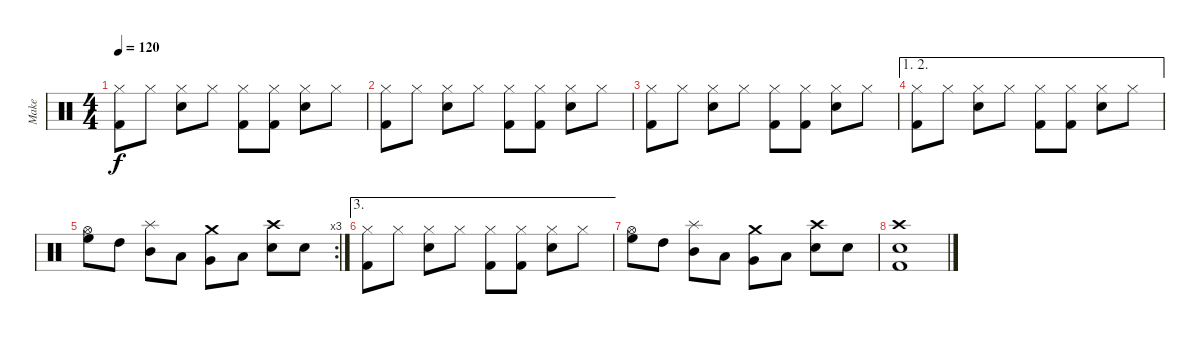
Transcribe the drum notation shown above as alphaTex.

\track ("Make" "Make") {instrument percussion}
\staff {score}
\articulation defaults
\ts (4 4)
\tempo 120
\clef neutral
\ks c
("Hi-Hat (closed)" "Kick (hit) 2").8{dy f} "Hi-Hat (closed)".8 ("Hi-Hat (closed)" "Electric Snare (hit)").8 "Hi-Hat (closed)".8 ("Hi-Hat (closed)" "Kick (hit) 2").8 ("Hi-Hat (closed)" "Kick (hit) 2").8 ("Hi-Hat (closed)" "Electric Snare (hit)").8 "Hi-Hat (closed)".8 |
("Hi-Hat (closed)" "Kick (hit) 2").8 "Hi-Hat (closed)".8 ("Hi-Hat (closed)" "Electric Snare (hit)").8 "Hi-Hat (closed)".8 ("Hi-Hat (closed)" "Kick (hit) 2").8 ("Hi-Hat (closed)" "Kick (hit) 2").8 ("Hi-Hat (closed)" "Electric Snare (hit)").8 "Hi-Hat (closed)".8 |
("Hi-Hat (closed)" "Kick (hit) 2").8 "Hi-Hat (closed)".8 ("Hi-Hat (closed)" "Electric Snare (hit)").8 "Hi-Hat (closed)".8 ("Hi-Hat (closed)" "Kick (hit) 2").8 ("Hi-Hat (closed)" "Kick (hit) 2").8 ("Hi-Hat (closed)" "Electric Snare (hit)").8 "Hi-Hat (closed)".8 |
\ae (1 2)
("Hi-Hat (closed)" "Kick (hit) 2").8 "Hi-Hat (closed)".8 ("Hi-Hat (closed)" "Electric Snare (hit)").8 "Hi-Hat (closed)".8 ("Hi-Hat (closed)" "Kick (hit) 2").8 ("Hi-Hat (closed)" "Kick (hit) 2").8 ("Hi-Hat (closed)" "Electric Snare (hit)").8 "Hi-Hat (closed)".8 |
\rc 3
("Hi-Hat (open)" "High Floor Tom (hit)").8 "High Tom (hit)".8 ("Splash (hit)" "Mid Tom (hit)").8 "Low Tom (hit)".8 ("Crash medium (hit)" "Very Low Tom (hit)").8 "Low Floor Tom (hit)".8 ("Crash high (hit)" "Electric Snare (hit)").8 "Electric Snare (hit)".8 |
\ae 3
("Hi-Hat (closed)" "Kick (hit) 2").8 "Hi-Hat (closed)".8 ("Hi-Hat (closed)" "Electric Snare (hit)").8 "Hi-Hat (closed)".8 ("Hi-Hat (closed)" "Kick (hit) 2").8 ("Hi-Hat (closed)" "Kick (hit) 2").8 ("Hi-Hat (closed)" "Electric Snare (hit)").8 "Hi-Hat (closed)".8 |
("Hi-Hat (open)" "High Floor Tom (hit)").8 "High Tom (hit)".8 ("Splash (hit)" "Mid Tom (hit)").8 "Low Tom (hit)".8 ("Crash medium (hit)" "Very Low Tom (hit)").8 "Low Floor Tom (hit)".8 ("Crash high (hit)" "Electric Snare (hit)").8 "Electric Snare (hit)".8 |
("Crash high (hit)" "Kick (hit) 2" "Electric Snare (hit)").1
